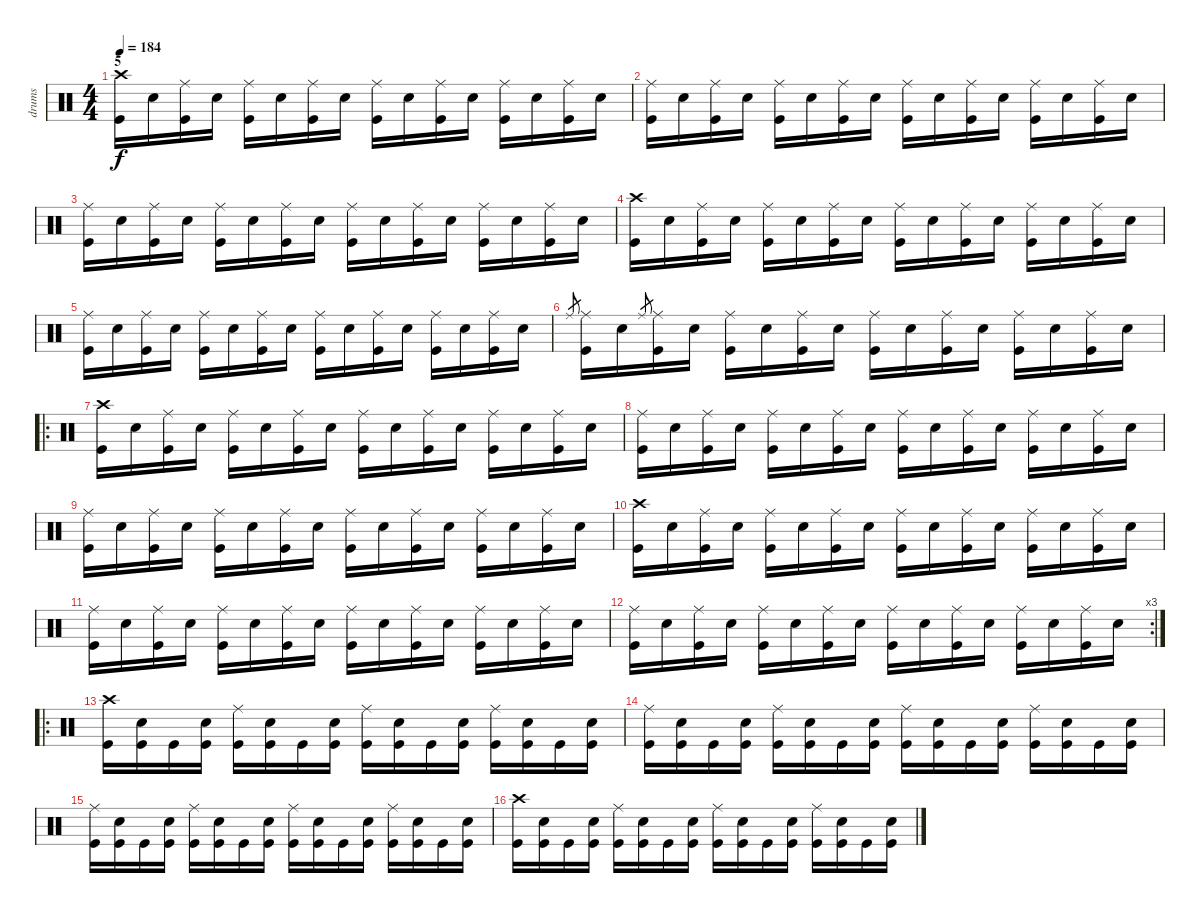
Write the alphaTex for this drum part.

\track ("drums" "drums") {instrument percussion}
\staff {score}
\articulation defaults
\ts (4 4)
\section ("" "5")
\tempo 184
\clef neutral
\ks c
("Kick (hit)" "Crash high (hit)").16{dy f} "Electric Snare (hit)".16 ("Kick (hit)" "Ride (middle)").16 "Electric Snare (hit)".16 ("Kick (hit)" "Ride (middle)").16 "Electric Snare (hit)".16 ("Kick (hit)" "Ride (middle)").16 "Electric Snare (hit)".16 ("Kick (hit)" "Ride (middle)").16 "Electric Snare (hit)".16 ("Kick (hit)" "Ride (middle)").16 "Electric Snare (hit)".16 ("Kick (hit)" "Ride (middle)").16 "Electric Snare (hit)".16 ("Kick (hit)" "Ride (middle)").16 "Electric Snare (hit)".16 |
("Kick (hit)" "Ride (middle)").16 "Electric Snare (hit)".16 ("Kick (hit)" "Ride (middle)").16 "Electric Snare (hit)".16 ("Kick (hit)" "Ride (middle)").16 "Electric Snare (hit)".16 ("Kick (hit)" "Ride (middle)").16 "Electric Snare (hit)".16 ("Kick (hit)" "Ride (middle)").16 "Electric Snare (hit)".16 ("Kick (hit)" "Ride (middle)").16 "Electric Snare (hit)".16 ("Kick (hit)" "Ride (middle)").16 "Electric Snare (hit)".16 ("Kick (hit)" "Ride (middle)").16 "Electric Snare (hit)".16 |
("Kick (hit)" "Ride (middle)").16 "Electric Snare (hit)".16 ("Kick (hit)" "Ride (middle)").16 "Electric Snare (hit)".16 ("Kick (hit)" "Ride (middle)").16 "Electric Snare (hit)".16 ("Kick (hit)" "Ride (middle)").16 "Electric Snare (hit)".16 ("Kick (hit)" "Ride (middle)").16 "Electric Snare (hit)".16 ("Kick (hit)" "Ride (middle)").16 "Electric Snare (hit)".16 ("Kick (hit)" "Ride (middle)").16 "Electric Snare (hit)".16 ("Kick (hit)" "Ride (middle)").16 "Electric Snare (hit)".16 |
("Kick (hit)" "Crash high (hit)").16 "Electric Snare (hit)".16 ("Kick (hit)" "Ride (middle)").16 "Electric Snare (hit)".16 ("Kick (hit)" "Ride (middle)").16 "Electric Snare (hit)".16 ("Kick (hit)" "Ride (middle)").16 "Electric Snare (hit)".16 ("Kick (hit)" "Ride (middle)").16 "Electric Snare (hit)".16 ("Kick (hit)" "Ride (middle)").16 "Electric Snare (hit)".16 ("Kick (hit)" "Ride (middle)").16 "Electric Snare (hit)".16 ("Kick (hit)" "Ride (middle)").16 "Electric Snare (hit)".16 |
("Kick (hit)" "Ride (middle)").16 "Electric Snare (hit)".16 ("Kick (hit)" "Ride (middle)").16 "Electric Snare (hit)".16 ("Kick (hit)" "Ride (middle)").16 "Electric Snare (hit)".16 ("Kick (hit)" "Ride (middle)").16 "Electric Snare (hit)".16 ("Kick (hit)" "Ride (middle)").16 "Electric Snare (hit)".16 ("Kick (hit)" "Ride (middle)").16 "Electric Snare (hit)".16 ("Kick (hit)" "Ride (middle)").16 "Electric Snare (hit)".16 ("Kick (hit)" "Ride (middle)").16 "Electric Snare (hit)".16 |
"Ride (middle)".8{gr} ("Kick (hit)" "Ride (middle)").16 "Electric Snare (hit)".16 "Ride (middle)".8{gr} ("Kick (hit)" "Ride (middle)").16 "Electric Snare (hit)".16 ("Kick (hit)" "Ride (middle)").16 "Electric Snare (hit)".16 ("Kick (hit)" "Ride (middle)").16 "Electric Snare (hit)".16 ("Kick (hit)" "Ride (middle)").16 "Electric Snare (hit)".16 ("Kick (hit)" "Ride (middle)").16 "Electric Snare (hit)".16 ("Kick (hit)" "Ride (middle)").16 "Electric Snare (hit)".16 ("Kick (hit)" "Ride (middle)").16 "Electric Snare (hit)".16 |
\ro
("Kick (hit)" "Crash high (hit)").16 "Electric Snare (hit)".16 ("Kick (hit)" "Ride (middle)").16 "Electric Snare (hit)".16 ("Kick (hit)" "Ride (middle)").16 "Electric Snare (hit)".16 ("Kick (hit)" "Ride (middle)").16 "Electric Snare (hit)".16 ("Kick (hit)" "Ride (middle)").16 "Electric Snare (hit)".16 ("Kick (hit)" "Ride (middle)").16 "Electric Snare (hit)".16 ("Kick (hit)" "Ride (middle)").16 "Electric Snare (hit)".16 ("Kick (hit)" "Ride (middle)").16 "Electric Snare (hit)".16 |
("Kick (hit)" "Ride (middle)").16 "Electric Snare (hit)".16 ("Kick (hit)" "Ride (middle)").16 "Electric Snare (hit)".16 ("Kick (hit)" "Ride (middle)").16 "Electric Snare (hit)".16 ("Kick (hit)" "Ride (middle)").16 "Electric Snare (hit)".16 ("Kick (hit)" "Ride (middle)").16 "Electric Snare (hit)".16 ("Kick (hit)" "Ride (middle)").16 "Electric Snare (hit)".16 ("Kick (hit)" "Ride (middle)").16 "Electric Snare (hit)".16 ("Kick (hit)" "Ride (middle)").16 "Electric Snare (hit)".16 |
("Kick (hit)" "Ride (middle)").16 "Electric Snare (hit)".16 ("Kick (hit)" "Ride (middle)").16 "Electric Snare (hit)".16 ("Kick (hit)" "Ride (middle)").16 "Electric Snare (hit)".16 ("Kick (hit)" "Ride (middle)").16 "Electric Snare (hit)".16 ("Kick (hit)" "Ride (middle)").16 "Electric Snare (hit)".16 ("Kick (hit)" "Ride (middle)").16 "Electric Snare (hit)".16 ("Kick (hit)" "Ride (middle)").16 "Electric Snare (hit)".16 ("Kick (hit)" "Ride (middle)").16 "Electric Snare (hit)".16 |
("Kick (hit)" "Crash high (hit)").16 "Electric Snare (hit)".16 ("Kick (hit)" "Ride (middle)").16 "Electric Snare (hit)".16 ("Kick (hit)" "Ride (middle)").16 "Electric Snare (hit)".16 ("Kick (hit)" "Ride (middle)").16 "Electric Snare (hit)".16 ("Kick (hit)" "Ride (middle)").16 "Electric Snare (hit)".16 ("Kick (hit)" "Ride (middle)").16 "Electric Snare (hit)".16 ("Kick (hit)" "Ride (middle)").16 "Electric Snare (hit)".16 ("Kick (hit)" "Ride (middle)").16 "Electric Snare (hit)".16 |
("Kick (hit)" "Ride (middle)").16 "Electric Snare (hit)".16 ("Kick (hit)" "Ride (middle)").16 "Electric Snare (hit)".16 ("Kick (hit)" "Ride (middle)").16 "Electric Snare (hit)".16 ("Kick (hit)" "Ride (middle)").16 "Electric Snare (hit)".16 ("Kick (hit)" "Ride (middle)").16 "Electric Snare (hit)".16 ("Kick (hit)" "Ride (middle)").16 "Electric Snare (hit)".16 ("Kick (hit)" "Ride (middle)").16 "Electric Snare (hit)".16 ("Kick (hit)" "Ride (middle)").16 "Electric Snare (hit)".16 |
\rc 3
("Kick (hit)" "Ride (middle)").16 "Electric Snare (hit)".16 ("Kick (hit)" "Ride (middle)").16 "Electric Snare (hit)".16 ("Kick (hit)" "Ride (middle)").16 "Electric Snare (hit)".16 ("Kick (hit)" "Ride (middle)").16 "Electric Snare (hit)".16 ("Kick (hit)" "Ride (middle)").16 "Electric Snare (hit)".16 ("Kick (hit)" "Ride (middle)").16 "Electric Snare (hit)".16 ("Kick (hit)" "Ride (middle)").16 "Electric Snare (hit)".16 ("Kick (hit)" "Ride (middle)").16 "Electric Snare (hit)".16 |
\ro
("Kick (hit)" "Crash high (hit)").16 ("Kick (hit)" "Electric Snare (hit)").16 "Kick (hit)".16 ("Kick (hit)" "Electric Snare (hit)").16 ("Kick (hit)" "Ride (middle)").16 ("Kick (hit)" "Electric Snare (hit)").16 "Kick (hit)".16 ("Kick (hit)" "Electric Snare (hit)").16 ("Kick (hit)" "Ride (middle)").16 ("Kick (hit)" "Electric Snare (hit)").16 "Kick (hit)".16 ("Kick (hit)" "Electric Snare (hit)").16 ("Kick (hit)" "Ride (middle)").16 ("Kick (hit)" "Electric Snare (hit)").16 "Kick (hit)".16 ("Kick (hit)" "Electric Snare (hit)").16 |
("Kick (hit)" "Ride (middle)").16 ("Kick (hit)" "Electric Snare (hit)").16 "Kick (hit)".16 ("Kick (hit)" "Electric Snare (hit)").16 ("Kick (hit)" "Ride (middle)").16 ("Kick (hit)" "Electric Snare (hit)").16 "Kick (hit)".16 ("Kick (hit)" "Electric Snare (hit)").16 ("Kick (hit)" "Ride (middle)").16 ("Kick (hit)" "Electric Snare (hit)").16 "Kick (hit)".16 ("Kick (hit)" "Electric Snare (hit)").16 ("Kick (hit)" "Ride (middle)").16 ("Kick (hit)" "Electric Snare (hit)").16 "Kick (hit)".16 ("Kick (hit)" "Electric Snare (hit)").16 |
("Kick (hit)" "Ride (middle)").16 ("Kick (hit)" "Electric Snare (hit)").16 "Kick (hit)".16 ("Kick (hit)" "Electric Snare (hit)").16 ("Kick (hit)" "Ride (middle)").16 ("Kick (hit)" "Electric Snare (hit)").16 "Kick (hit)".16 ("Kick (hit)" "Electric Snare (hit)").16 ("Kick (hit)" "Ride (middle)").16 ("Kick (hit)" "Electric Snare (hit)").16 "Kick (hit)".16 ("Kick (hit)" "Electric Snare (hit)").16 ("Kick (hit)" "Ride (middle)").16 ("Kick (hit)" "Electric Snare (hit)").16 "Kick (hit)".16 ("Kick (hit)" "Electric Snare (hit)").16 |
("Kick (hit)" "Crash high (hit)").16 ("Kick (hit)" "Electric Snare (hit)").16 "Kick (hit)".16 ("Kick (hit)" "Electric Snare (hit)").16 ("Kick (hit)" "Ride (middle)").16 ("Kick (hit)" "Electric Snare (hit)").16 "Kick (hit)".16 ("Kick (hit)" "Electric Snare (hit)").16 ("Kick (hit)" "Ride (middle)").16 ("Kick (hit)" "Electric Snare (hit)").16 "Kick (hit)".16 ("Kick (hit)" "Electric Snare (hit)").16 ("Kick (hit)" "Ride (middle)").16 ("Kick (hit)" "Electric Snare (hit)").16 "Kick (hit)".16 ("Kick (hit)" "Electric Snare (hit)").16
